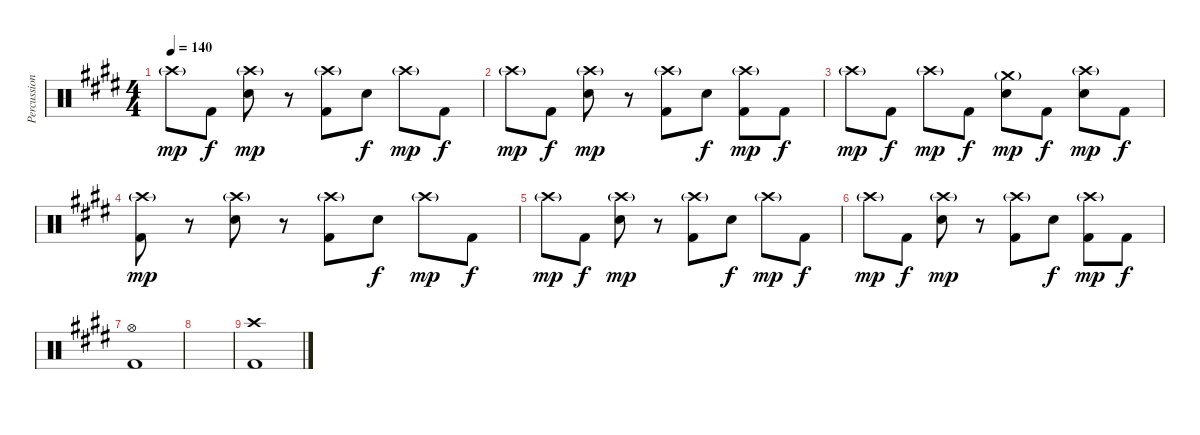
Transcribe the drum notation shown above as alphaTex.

\track ("Percussion" "Percussion") {instrument percussion}
\staff {score}
\articulation defaults
\ts (4 4)
\tempo 140
\clef neutral
\ks e "Crash high (hit)"{g}.8{dy mp} "Kick (hit) 2".8{dy f}
("Crash high (hit)"{g} "Snare (hit) 2").8{dy mp} r.8 ("Crash high (hit)"{g} "Kick (hit) 2").8 "Snare (hit) 2".8{dy f} "Crash high (hit)"{g}.8{dy mp} "Kick (hit) 2".8{dy f} |
"Crash high (hit)"{g}.8{dy mp} "Kick (hit) 2".8{dy f} ("Crash high (hit)"{g} "Snare (hit) 2").8{dy mp} r.8 ("Crash high (hit)"{g} "Kick (hit) 2").8 "Snare (hit) 2".8{dy f} ("Crash high (hit)"{g} "Kick (hit) 2").8{dy mp} "Kick (hit) 2".8{dy f} |
"Crash high (hit)"{g}.8{dy mp} "Kick (hit) 2".8{dy f} "Crash high (hit)"{g}.8{dy mp} "Kick (hit) 2".8{dy f} ("Crash medium (hit)"{g} "Snare (hit) 2").8{dy mp} "Kick (hit) 2".8{dy f} ("Crash high (hit)"{g} "Snare (hit) 2").8{dy mp} "Kick (hit) 2".8{dy f} |
("Crash high (hit)"{g} "Kick (hit) 2").8{dy mp} r.8 ("Crash high (hit)"{g} "Snare (hit) 2").8 r.8 ("Crash high (hit)"{g} "Kick (hit) 2").8 "Snare (hit) 2".8{dy f} "Crash high (hit)"{g}.8{dy mp} "Kick (hit) 2".8{dy f} |
"Crash high (hit)"{g}.8{dy mp} "Kick (hit) 2".8{dy f} ("Crash high (hit)"{g} "Snare (hit) 2").8{dy mp} r.8 ("Crash high (hit)"{g} "Kick (hit) 2").8 "Snare (hit) 2".8{dy f} "Crash high (hit)"{g}.8{dy mp} "Kick (hit) 2".8{dy f} |
"Crash high (hit)"{g}.8{dy mp} "Kick (hit) 2".8{dy f} ("Crash high (hit)"{g} "Snare (hit) 2").8{dy mp} r.8 ("Crash high (hit)"{g} "Kick (hit) 2").8 "Snare (hit) 2".8{dy f} ("Crash high (hit)"{g} "Kick (hit) 2").8{dy mp} "Kick (hit) 2".8{dy f} |
("Hi-Hat (open)" "Kick (hit) 2").1 |
|
("Crash high (hit)" "Kick (hit) 2").1
